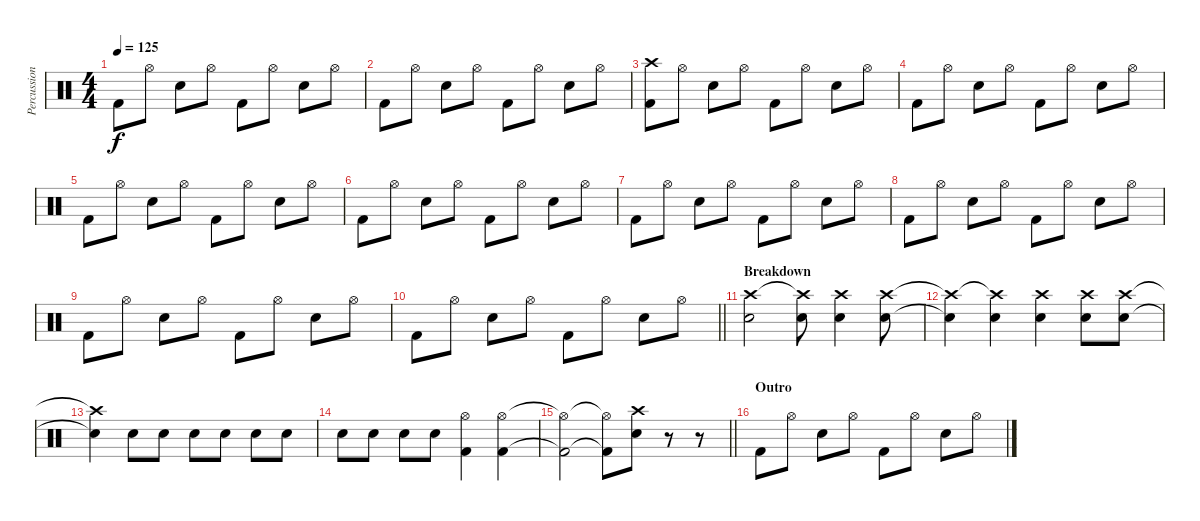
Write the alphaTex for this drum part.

\track ("Percussion" "Percussion") {instrument percussion}
\staff {score}
\articulation defaults
\ts (4 4)
\tempo 125
\clef neutral
\ks c "Kick (hit) 2".8{dy f} "Hi-Hat (open)".8 "Snare (hit) 2".8 "Hi-Hat (open)".8 "Kick (hit) 2".8 "Hi-Hat (open)".8 "Snare (hit) 2".8 "Hi-Hat (open)".8
|
"Kick (hit) 2".8 "Hi-Hat (open)".8 "Snare (hit) 2".8 "Hi-Hat (open)".8 "Kick (hit) 2".8 "Hi-Hat (open)".8 "Snare (hit) 2".8 "Hi-Hat (open)".8 |
("Crash high (hit)" "Kick (hit) 2").8 "Hi-Hat (open)".8 "Snare (hit) 2".8 "Hi-Hat (open)".8 "Kick (hit) 2".8 "Hi-Hat (open)".8 "Snare (hit) 2".8 "Hi-Hat (open)".8 |
"Kick (hit) 2".8 "Hi-Hat (open)".8 "Snare (hit) 2".8 "Hi-Hat (open)".8 "Kick (hit) 2".8 "Hi-Hat (open)".8 "Snare (hit) 2".8 "Hi-Hat (open)".8 |
"Kick (hit) 2".8 "Hi-Hat (open)".8 "Snare (hit) 2".8 "Hi-Hat (open)".8 "Kick (hit) 2".8 "Hi-Hat (open)".8 "Snare (hit) 2".8 "Hi-Hat (open)".8 |
"Kick (hit) 2".8 "Hi-Hat (open)".8 "Snare (hit) 2".8 "Hi-Hat (open)".8 "Kick (hit) 2".8 "Hi-Hat (open)".8 "Snare (hit) 2".8 "Hi-Hat (open)".8 |
"Kick (hit) 2".8 "Hi-Hat (open)".8 "Snare (hit) 2".8 "Hi-Hat (open)".8 "Kick (hit) 2".8 "Hi-Hat (open)".8 "Snare (hit) 2".8 "Hi-Hat (open)".8 |
"Kick (hit) 2".8 "Hi-Hat (open)".8 "Snare (hit) 2".8 "Hi-Hat (open)".8 "Kick (hit) 2".8 "Hi-Hat (open)".8 "Snare (hit) 2".8 "Hi-Hat (open)".8 |
"Kick (hit) 2".8 "Hi-Hat (open)".8 "Snare (hit) 2".8 "Hi-Hat (open)".8 "Kick (hit) 2".8 "Hi-Hat (open)".8 "Snare (hit) 2".8 "Hi-Hat (open)".8 |
\barLineRight lightlight "Kick (hit) 2".8 "Hi-Hat (open)".8 "Snare (hit) 2".8 "Hi-Hat (open)".8 "Kick (hit) 2".8 "Hi-Hat (open)".8 "Snare (hit) 2".8 "Hi-Hat (open)".8
|
\section ("" "Breakdown")
("Crash high (hit)" "Snare (hit) 2").2 ("Crash high (hit)"{t} "Snare (hit) 2").8 ("Crash high (hit)" "Snare (hit) 2").4 ("Crash high (hit)" "Snare (hit) 2").8 |
("Crash high (hit)"{t} "Snare (hit) 2"{t}).4 ("Crash high (hit)"{t} "Snare (hit) 2").4 ("Crash high (hit)" "Snare (hit) 2").4 ("Crash high (hit)" "Snare (hit) 2").8 ("Crash high (hit)" "Snare (hit) 2").8 |
("Crash high (hit)"{t} "Snare (hit) 2"{t}).4 "Snare (hit) 2".8 "Snare (hit) 2".8 "Snare (hit) 2".8 "Snare (hit) 2".8 "Snare (hit) 2".8 "Snare (hit) 2".8 |
"Snare (hit) 2".8 "Snare (hit) 2".8 "Snare (hit) 2".8 "Snare (hit) 2".8 ("Hi-Hat (open)" "Kick (hit) 2").4 ("Hi-Hat (open)" "Kick (hit) 2").4 |
\barLineRight lightlight
("Hi-Hat (open)"{t} "Kick (hit) 2"{t}).2 ("Hi-Hat (open)"{t} "Kick (hit) 2"{t}).8 ("Crash high (hit)" "Snare (hit) 2").8 r.8 r.8 |
\section ("" "Outro")
"Kick (hit) 2".8 "Hi-Hat (open)".8 "Snare (hit) 2".8 "Hi-Hat (open)".8 "Kick (hit) 2".8 "Hi-Hat (open)".8 "Snare (hit) 2".8 "Hi-Hat (open)".8
